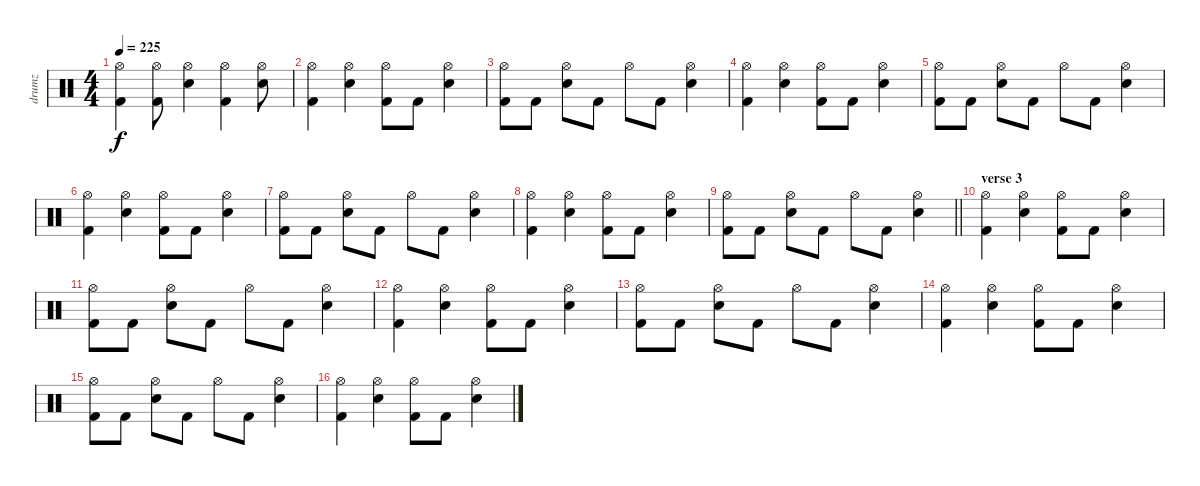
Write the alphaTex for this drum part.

\track ("drumz" "drumz") {instrument percussion}
\staff {score}
\articulation defaults
\ts (4 4)
\tempo 225
\clef neutral
\ks c
("Hi-Hat (open)" "Kick (hit) 2").4{dy f} ("Hi-Hat (open)" "Kick (hit) 2").8 ("Hi-Hat (open)" "Electric Snare (hit)").4 ("Hi-Hat (open)" "Kick (hit) 2").4 ("Hi-Hat (open)" "Electric Snare (hit)").8 |
("Hi-Hat (open)" "Kick (hit) 2").4 ("Hi-Hat (open)" "Electric Snare (hit)").4 ("Hi-Hat (open)" "Kick (hit) 2").8 "Kick (hit) 2".8 ("Hi-Hat (open)" "Electric Snare (hit)").4 |
("Hi-Hat (open)" "Kick (hit) 2").8 "Kick (hit) 2".8 ("Hi-Hat (open)" "Electric Snare (hit)").8 "Kick (hit) 2".8 "Hi-Hat (open)".8 "Kick (hit) 2".8 ("Hi-Hat (open)" "Electric Snare (hit)").4 |
("Hi-Hat (open)" "Kick (hit) 2").4 ("Hi-Hat (open)" "Electric Snare (hit)").4 ("Hi-Hat (open)" "Kick (hit) 2").8 "Kick (hit) 2".8 ("Hi-Hat (open)" "Electric Snare (hit)").4 |
("Hi-Hat (open)" "Kick (hit) 2").8 "Kick (hit) 2".8 ("Hi-Hat (open)" "Electric Snare (hit)").8 "Kick (hit) 2".8 "Hi-Hat (open)".8 "Kick (hit) 2".8 ("Hi-Hat (open)" "Electric Snare (hit)").4 |
("Hi-Hat (open)" "Kick (hit) 2").4 ("Hi-Hat (open)" "Electric Snare (hit)").4 ("Hi-Hat (open)" "Kick (hit) 2").8 "Kick (hit) 2".8 ("Hi-Hat (open)" "Electric Snare (hit)").4 |
("Hi-Hat (open)" "Kick (hit) 2").8 "Kick (hit) 2".8 ("Hi-Hat (open)" "Electric Snare (hit)").8 "Kick (hit) 2".8 "Hi-Hat (open)".8 "Kick (hit) 2".8 ("Hi-Hat (open)" "Electric Snare (hit)").4 |
("Hi-Hat (open)" "Kick (hit) 2").4 ("Hi-Hat (open)" "Electric Snare (hit)").4 ("Hi-Hat (open)" "Kick (hit) 2").8 "Kick (hit) 2".8 ("Hi-Hat (open)" "Electric Snare (hit)").4 |
\barLineRight lightlight
("Hi-Hat (open)" "Kick (hit) 2").8 "Kick (hit) 2".8 ("Hi-Hat (open)" "Electric Snare (hit)").8 "Kick (hit) 2".8 "Hi-Hat (open)".8 "Kick (hit) 2".8 ("Hi-Hat (open)" "Electric Snare (hit)").4 |
\section ("" "verse 3")
("Hi-Hat (open)" "Kick (hit) 2").4 ("Hi-Hat (open)" "Electric Snare (hit)").4 ("Hi-Hat (open)" "Kick (hit) 2").8 "Kick (hit) 2".8 ("Hi-Hat (open)" "Electric Snare (hit)").4 |
("Hi-Hat (open)" "Kick (hit) 2").8 "Kick (hit) 2".8 ("Hi-Hat (open)" "Electric Snare (hit)").8 "Kick (hit) 2".8 "Hi-Hat (open)".8 "Kick (hit) 2".8 ("Hi-Hat (open)" "Electric Snare (hit)").4 |
("Hi-Hat (open)" "Kick (hit) 2").4 ("Hi-Hat (open)" "Electric Snare (hit)").4 ("Hi-Hat (open)" "Kick (hit) 2").8 "Kick (hit) 2".8 ("Hi-Hat (open)" "Electric Snare (hit)").4 |
("Hi-Hat (open)" "Kick (hit) 2").8 "Kick (hit) 2".8 ("Hi-Hat (open)" "Electric Snare (hit)").8 "Kick (hit) 2".8 "Hi-Hat (open)".8 "Kick (hit) 2".8 ("Hi-Hat (open)" "Electric Snare (hit)").4 |
("Hi-Hat (open)" "Kick (hit) 2").4 ("Hi-Hat (open)" "Electric Snare (hit)").4 ("Hi-Hat (open)" "Kick (hit) 2").8 "Kick (hit) 2".8 ("Hi-Hat (open)" "Electric Snare (hit)").4 |
("Hi-Hat (open)" "Kick (hit) 2").8 "Kick (hit) 2".8 ("Hi-Hat (open)" "Electric Snare (hit)").8 "Kick (hit) 2".8 "Hi-Hat (open)".8 "Kick (hit) 2".8 ("Hi-Hat (open)" "Electric Snare (hit)").4 |
("Hi-Hat (open)" "Kick (hit) 2").4 ("Hi-Hat (open)" "Electric Snare (hit)").4 ("Hi-Hat (open)" "Kick (hit) 2").8 "Kick (hit) 2".8 ("Hi-Hat (open)" "Electric Snare (hit)").4
